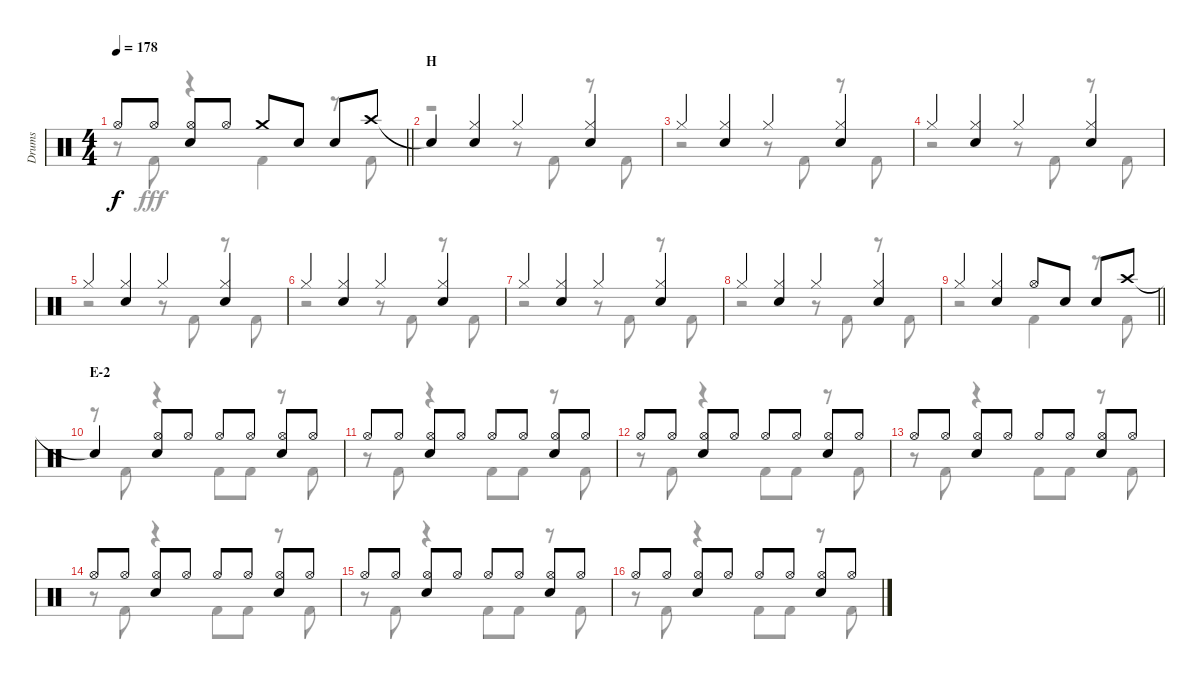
\track ("Drums" "Drums") {instrument percussion}
\staff {score}
\articulation defaults
\voice
\ts (4 4)
\tempo 178
\clef neutral
\barLineRight lightlight
\ks c "Hi-Hat (open)".8{dy f} "Hi-Hat (open)".8
("Hi-Hat (open)" "Snare (hit) 2").8 "Hi-Hat (open)".8 "Crash medium (hit)".8 "Snare (hit) 2".8 "Snare (hit) 2".8 "Crash high (hit)".8 |
\section ("" "H")
"Snare (hit)"{t}.4 ("Hi-Hat (closed)" "Snare (hit) 2").4 "Hi-Hat (closed)".4 ("Hi-Hat (closed)" "Snare (hit) 2").4 |
"Hi-Hat (closed)".4 ("Hi-Hat (closed)" "Snare (hit) 2").4 "Hi-Hat (closed)".4 ("Hi-Hat (closed)" "Snare (hit) 2").4 |
"Hi-Hat (closed)".4 ("Hi-Hat (closed)" "Snare (hit) 2").4 "Hi-Hat (closed)".4 ("Hi-Hat (closed)" "Snare (hit) 2").4 |
"Hi-Hat (closed)".4 ("Hi-Hat (closed)" "Snare (hit) 2").4 "Hi-Hat (closed)".4 ("Hi-Hat (closed)" "Snare (hit) 2").4 |
"Hi-Hat (closed)".4 ("Hi-Hat (closed)" "Snare (hit) 2").4 "Hi-Hat (closed)".4 ("Hi-Hat (closed)" "Snare (hit) 2").4 |
"Hi-Hat (closed)".4 ("Hi-Hat (closed)" "Snare (hit) 2").4 "Hi-Hat (closed)".4 ("Hi-Hat (closed)" "Snare (hit) 2").4 |
"Hi-Hat (closed)".4 ("Hi-Hat (closed)" "Snare (hit) 2").4 "Hi-Hat (closed)".4 ("Hi-Hat (closed)" "Snare (hit) 2").4 |
\barLineRight lightlight "Hi-Hat (closed)".4
("Hi-Hat (closed)" "Snare (hit) 2").4 "Hi-Hat (open)".8 "Snare (hit) 2".8 "Snare (hit) 2".8 "Crash high (hit)".8 |
\section ("" "E-2")
"Snare (hit)"{t}.4 ("Hi-Hat (open)" "Snare (hit) 2").8 "Hi-Hat (open)".8 "Hi-Hat (open)".8 "Hi-Hat (open)".8 ("Hi-Hat (open)" "Snare (hit) 2").8 "Hi-Hat (open)".8 |
"Hi-Hat (open)".8 "Hi-Hat (open)".8 ("Hi-Hat (open)" "Snare (hit) 2").8 "Hi-Hat (open)".8 "Hi-Hat (open)".8 "Hi-Hat (open)".8 ("Hi-Hat (open)" "Snare (hit) 2").8 "Hi-Hat (open)".8 |
"Hi-Hat (open)".8 "Hi-Hat (open)".8 ("Hi-Hat (open)" "Snare (hit) 2").8 "Hi-Hat (open)".8 "Hi-Hat (open)".8 "Hi-Hat (open)".8 ("Hi-Hat (open)" "Snare (hit) 2").8 "Hi-Hat (open)".8 |
"Hi-Hat (open)".8 "Hi-Hat (open)".8 ("Hi-Hat (open)" "Snare (hit) 2").8 "Hi-Hat (open)".8 "Hi-Hat (open)".8 "Hi-Hat (open)".8 ("Hi-Hat (open)" "Snare (hit) 2").8 "Hi-Hat (open)".8 |
"Hi-Hat (open)".8 "Hi-Hat (open)".8 ("Hi-Hat (open)" "Snare (hit) 2").8 "Hi-Hat (open)".8 "Hi-Hat (open)".8 "Hi-Hat (open)".8 ("Hi-Hat (open)" "Snare (hit) 2").8 "Hi-Hat (open)".8 |
"Hi-Hat (open)".8 "Hi-Hat (open)".8 ("Hi-Hat (open)" "Snare (hit) 2").8 "Hi-Hat (open)".8 "Hi-Hat (open)".8 "Hi-Hat (open)".8 ("Hi-Hat (open)" "Snare (hit) 2").8 "Hi-Hat (open)".8 |
"Hi-Hat (open)".8 "Hi-Hat (open)".8 ("Hi-Hat (open)" "Snare (hit) 2").8 "Hi-Hat (open)".8 "Hi-Hat (open)".8 "Hi-Hat (open)".8 ("Hi-Hat (open)" "Snare (hit) 2").8 "Hi-Hat (open)".8
\voice
\clef neutral
\ottava regular
\simile none
\barLineRight lightlight
\ks c
r.8{dy fff} "Kick (hit) 2".8 r.4 "Kick (hit) 2".4 r.8 "Kick (hit) 2".8 |
r.2 r.8 "Kick (hit) 2".8 r.8 "Kick (hit) 2".8 |
r.2 r.8 "Kick (hit) 2".8 r.8 "Kick (hit) 2".8 |
r.2 r.8 "Kick (hit) 2".8 r.8 "Kick (hit) 2".8 |
r.2 r.8 "Kick (hit) 2".8 r.8 "Kick (hit) 2".8 |
r.2 r.8 "Kick (hit) 2".8 r.8 "Kick (hit) 2".8 |
r.2 r.8 "Kick (hit) 2".8 r.8 "Kick (hit) 2".8 |
r.2 r.8 "Kick (hit) 2".8 r.8 "Kick (hit) 2".8 |
\barLineRight lightlight
r.2 "Kick (hit) 2".4 r.8 "Kick (hit) 2".8 |
r.8 "Kick (hit) 2".8 r.4 "Kick (hit) 2".8 "Kick (hit) 2".8 r.8 "Kick (hit) 2".8 |
r.8 "Kick (hit) 2".8 r.4 "Kick (hit) 2".8 "Kick (hit) 2".8 r.8 "Kick (hit) 2".8 |
r.8 "Kick (hit) 2".8 r.4 "Kick (hit) 2".8 "Kick (hit) 2".8 r.8 "Kick (hit) 2".8 |
r.8 "Kick (hit) 2".8 r.4 "Kick (hit) 2".8 "Kick (hit) 2".8 r.8 "Kick (hit) 2".8 |
r.8 "Kick (hit) 2".8 r.4 "Kick (hit) 2".8 "Kick (hit) 2".8 r.8 "Kick (hit) 2".8 |
r.8 "Kick (hit) 2".8 r.4 "Kick (hit) 2".8 "Kick (hit) 2".8 r.8 "Kick (hit) 2".8 |
r.8 "Kick (hit) 2".8 r.4 "Kick (hit) 2".8 "Kick (hit) 2".8 r.8 "Kick (hit) 2".8
